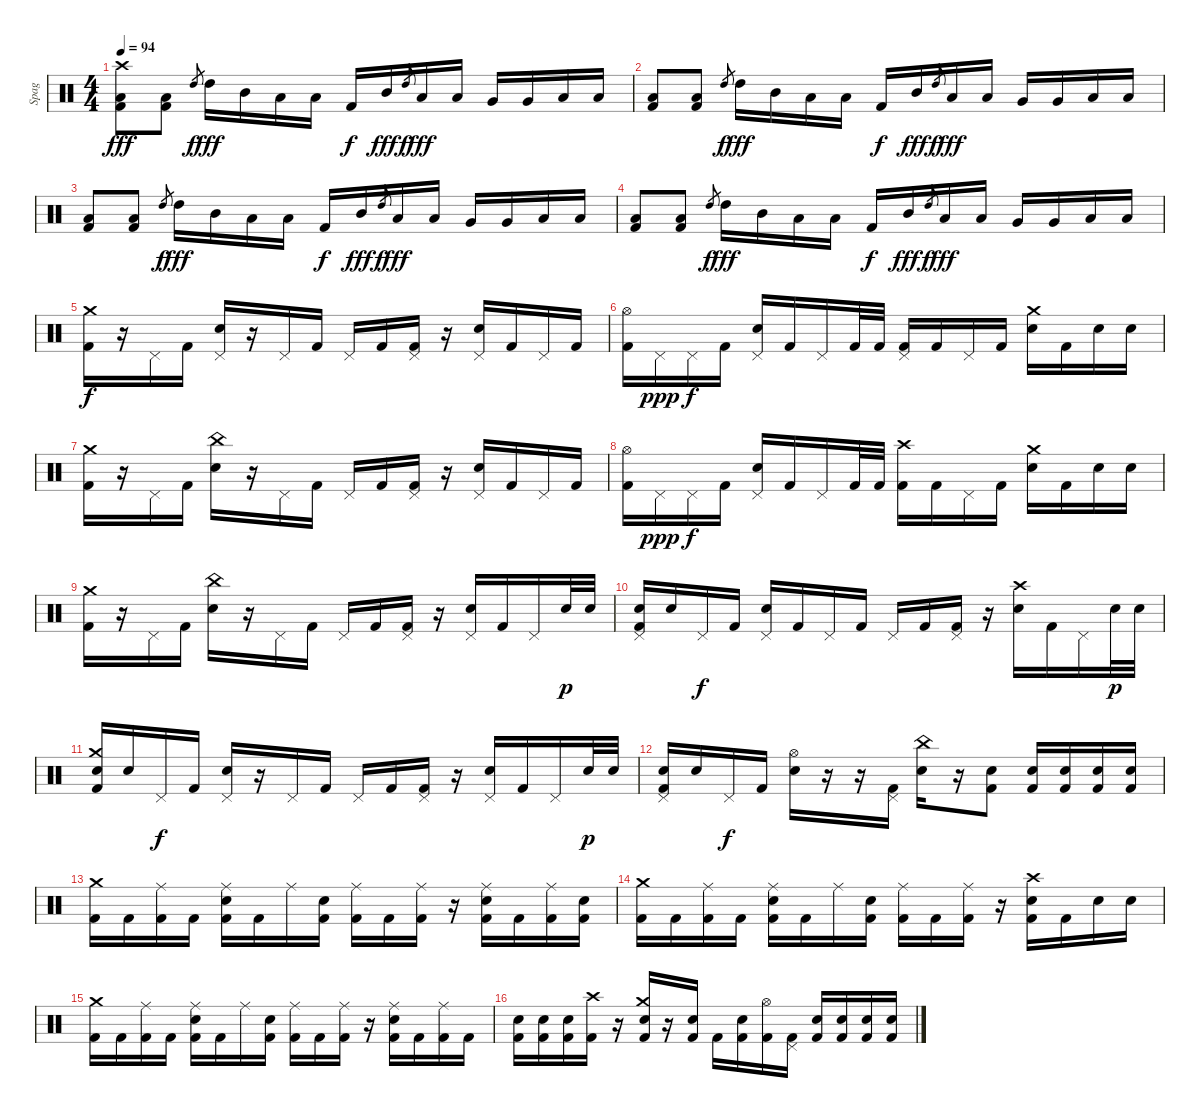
\track ("Spag" "Spag") {instrument percussion}
\staff {score}
\articulation defaults
\ts (4 4)
\tempo 94
\clef neutral
\ks c
("Crash high (hit)" "Low Floor Tom (hit)" "Kick (hit) 2").8{dy fff} ("Low Floor Tom (hit)" "Kick (hit) 2").8 "High Tom (hit)".8{gr dy f} "High Tom (hit)".16{dy fff} "Mid Tom (hit)".16 "Low Tom (hit)".16 "Low Tom (hit)".16 "Kick (hit) 2".16{dy f} "Mid Tom (hit)".16{dy fff} "High Tom (hit)".8{gr dy f} "Low Tom (hit)".16{dy fff} "Low Tom (hit)".16 "Very Low Tom (hit)".16 "Very Low Tom (hit)".16 "Low Floor Tom (hit)".16 "Low Floor Tom (hit)".16 |
("Low Floor Tom (hit)" "Kick (hit) 2").8 ("Low Floor Tom (hit)" "Kick (hit) 2").8 "High Tom (hit)".8{gr dy f} "High Tom (hit)".16{dy fff} "Mid Tom (hit)".16 "Low Tom (hit)".16 "Low Tom (hit)".16 "Kick (hit) 2".16{dy f} "Mid Tom (hit)".16{dy fff} "High Tom (hit)".8{gr dy f} "Low Tom (hit)".16{dy fff} "Low Tom (hit)".16 "Very Low Tom (hit)".16 "Very Low Tom (hit)".16 "Low Floor Tom (hit)".16 "Low Floor Tom (hit)".16 |
("Low Floor Tom (hit)" "Kick (hit) 2").8 ("Low Floor Tom (hit)" "Kick (hit) 2").8 "High Tom (hit)".8{gr dy f} "High Tom (hit)".16{dy fff} "Mid Tom (hit)".16 "Low Tom (hit)".16 "Low Tom (hit)".16 "Kick (hit) 2".16{dy f} "Mid Tom (hit)".16{dy fff} "High Tom (hit)".8{gr dy f} "Low Tom (hit)".16{dy fff} "Low Tom (hit)".16 "Very Low Tom (hit)".16 "Very Low Tom (hit)".16 "Low Floor Tom (hit)".16 "Low Floor Tom (hit)".16 |
("Low Floor Tom (hit)" "Kick (hit) 2").8 ("Low Floor Tom (hit)" "Kick (hit) 2").8 "High Tom (hit)".8{gr dy f} "High Tom (hit)".16{dy fff} "Mid Tom (hit)".16 "Low Tom (hit)".16 "Low Tom (hit)".16 "Kick (hit) 2".16{dy f} "Mid Tom (hit)".16{dy fff} "High Tom (hit)".8{gr dy f} "Low Tom (hit)".16{dy fff} "Low Tom (hit)".16 "Very Low Tom (hit)".16 "Very Low Tom (hit)".16 "Low Floor Tom (hit)".16 "Low Floor Tom (hit)".16 |
("Crash medium (hit)" "Kick (hit) 2").16{dy f} r.16 "Pedal Hi-Hat (hit)".16 "Kick (hit) 2".16 ("Pedal Hi-Hat (hit)" "Electric Snare (hit)").16 r.16 "Pedal Hi-Hat (hit)".16 "Kick (hit) 2".16 "Pedal Hi-Hat (hit)".16 "Kick (hit) 2".16 ("Pedal Hi-Hat (hit)" "Kick (hit) 2").16 r.16 ("Pedal Hi-Hat (hit)" "Electric Snare (hit)").16 "Kick (hit) 2".16 "Pedal Hi-Hat (hit)".16 "Kick (hit) 2".16 |
("Hi-Hat (open)" "Kick (hit) 2").16 "Pedal Hi-Hat (hit)".16{dy ppp} "Pedal Hi-Hat (hit)".16{dy f} "Kick (hit) 2".16 ("Pedal Hi-Hat (hit)" "Electric Snare (hit)").16 "Kick (hit) 2".16 "Pedal Hi-Hat (hit)".16 "Kick (hit) 2".32 "Kick (hit) 2".32 ("Pedal Hi-Hat (hit)" "Kick (hit) 2").16 "Kick (hit) 2".16 "Pedal Hi-Hat (hit)".16 "Kick (hit) 2".16 ("Crash medium (hit)" "Electric Snare (hit)").16 "Kick (hit) 2".16 "Electric Snare (hit)".16 "Electric Snare (hit)".16 |
("Crash medium (hit)" "Kick (hit) 2").16 r.16 "Pedal Hi-Hat (hit)".16 "Kick (hit) 2".16 ("China (hit)" "Electric Snare (hit)").16 r.16 "Pedal Hi-Hat (hit)".16 "Kick (hit) 2".16 "Pedal Hi-Hat (hit)".16 "Kick (hit) 2".16 ("Pedal Hi-Hat (hit)" "Kick (hit) 2").16 r.16 ("Pedal Hi-Hat (hit)" "Electric Snare (hit)").16 "Kick (hit) 2".16 "Pedal Hi-Hat (hit)".16 "Kick (hit) 2".16 |
("Hi-Hat (open)" "Kick (hit) 2").16 "Pedal Hi-Hat (hit)".16{dy ppp} "Pedal Hi-Hat (hit)".16{dy f} "Kick (hit) 2".16 ("Pedal Hi-Hat (hit)" "Electric Snare (hit)").16 "Kick (hit) 2".16 "Pedal Hi-Hat (hit)".16 "Kick (hit) 2".32 "Kick (hit) 2".32 ("Crash high (hit)" "Kick (hit) 2").16 "Kick (hit) 2".16 "Pedal Hi-Hat (hit)".16 "Kick (hit) 2".16 ("Crash medium (hit)" "Electric Snare (hit)").16 "Kick (hit) 2".16 "Electric Snare (hit)".16 "Electric Snare (hit)".16 |
("Crash medium (hit)" "Kick (hit) 2").16 r.16 "Pedal Hi-Hat (hit)".16 "Kick (hit) 2".16 ("China (hit)" "Electric Snare (hit)").16 r.16 "Pedal Hi-Hat (hit)".16 "Kick (hit) 2".16 "Pedal Hi-Hat (hit)".16 "Kick (hit) 2".16 ("Pedal Hi-Hat (hit)" "Kick (hit) 2").16 r.16 ("Pedal Hi-Hat (hit)" "Electric Snare (hit)").16 "Kick (hit) 2".16 "Pedal Hi-Hat (hit)".16 "Electric Snare (hit)".32{dy p} "Electric Snare (hit)".32 |
("Pedal Hi-Hat (hit)" "Electric Snare (hit)" "Kick (hit) 2").16 "Electric Snare (hit)".16 "Pedal Hi-Hat (hit)".16{dy f} "Kick (hit) 2".16 ("Pedal Hi-Hat (hit)" "Electric Snare (hit)").16 "Kick (hit) 2".16 "Pedal Hi-Hat (hit)".16 "Kick (hit) 2".16 "Pedal Hi-Hat (hit)".16 "Kick (hit) 2".16 ("Pedal Hi-Hat (hit)" "Kick (hit) 2").16 r.16 ("Crash high (hit)" "Electric Snare (hit)").16 "Kick (hit) 2".16 "Pedal Hi-Hat (hit)".16 "Electric Snare (hit)".32{dy p} "Electric Snare (hit)".32 |
("Crash medium (hit)" "Electric Snare (hit)" "Kick (hit) 2").16 "Electric Snare (hit)".16 "Pedal Hi-Hat (hit)".16{dy f} "Kick (hit) 2".16 ("Pedal Hi-Hat (hit)" "Electric Snare (hit)").16 r.16 "Pedal Hi-Hat (hit)".16 "Kick (hit) 2".16 "Pedal Hi-Hat (hit)".16 "Kick (hit) 2".16 ("Pedal Hi-Hat (hit)" "Kick (hit) 2").16 r.16 ("Pedal Hi-Hat (hit)" "Electric Snare (hit)").16 "Kick (hit) 2".16 "Pedal Hi-Hat (hit)".16 "Electric Snare (hit)".32{dy p} "Electric Snare (hit)".32 |
("Pedal Hi-Hat (hit)" "Electric Snare (hit)" "Kick (hit) 2").16 "Electric Snare (hit)".16 "Pedal Hi-Hat (hit)".16{dy f} "Kick (hit) 2".16 ("Hi-Hat (open)" "Electric Snare (hit)").16 r.16 r.16 ("Pedal Hi-Hat (hit)" "Kick (hit) 2").16 ("China (hit)" "Electric Snare (hit)").16 r.16 ("Electric Snare (hit)" "Kick (hit) 2").8 ("Electric Snare (hit)" "Kick (hit) 2").16 ("Electric Snare (hit)" "Kick (hit) 2").16 ("Electric Snare (hit)" "Kick (hit) 2").16 ("Electric Snare (hit)" "Kick (hit) 2").16 |
("Crash medium (hit)" "Kick (hit) 2").16 "Kick (hit) 2".16 ("Ride (middle)" "Kick (hit) 2").16 "Kick (hit) 2".16 ("Ride (middle)" "Electric Snare (hit)" "Kick (hit) 2").16 "Kick (hit) 2".16 "Ride (middle)".16 ("Electric Snare (hit)" "Kick (hit) 2").16 ("Ride (middle)" "Kick (hit) 2").16 "Kick (hit) 2".16 ("Ride (middle)" "Kick (hit) 2").16 r.16 ("Ride (middle)" "Electric Snare (hit)" "Kick (hit) 2").16 "Kick (hit) 2".16 ("Ride (middle)" "Kick (hit) 2").16 ("Electric Snare (hit)" "Kick (hit) 2").16 |
("Crash medium (hit)" "Kick (hit) 2").16 "Kick (hit) 2".16 ("Ride (middle)" "Kick (hit) 2").16 "Kick (hit) 2".16 ("Ride (middle)" "Electric Snare (hit)" "Kick (hit) 2").16 "Kick (hit) 2".16 "Ride (middle)".16 ("Electric Snare (hit)" "Kick (hit) 2").16 ("Ride (middle)" "Kick (hit) 2").16 "Kick (hit) 2".16 ("Ride (middle)" "Kick (hit) 2").16 r.16 ("Crash high (hit)" "Electric Snare (hit)" "Kick (hit) 2").16 "Kick (hit) 2".16 "Electric Snare (hit)".16 "Electric Snare (hit)".16 |
("Crash medium (hit)" "Kick (hit) 2").16 "Kick (hit) 2".16 ("Ride (middle)" "Kick (hit) 2").16 "Kick (hit) 2".16 ("Ride (middle)" "Electric Snare (hit)" "Kick (hit) 2").16 "Kick (hit) 2".16 "Ride (middle)".16 ("Electric Snare (hit)" "Kick (hit) 2").16 ("Ride (middle)" "Kick (hit) 2").16 "Kick (hit) 2".16 ("Ride (middle)" "Kick (hit) 2").16 r.16 ("Ride (middle)" "Electric Snare (hit)" "Kick (hit) 2").16 "Kick (hit) 2".16 ("Ride (middle)" "Kick (hit) 2").16 "Kick (hit) 2".16 |
("Electric Snare (hit)" "Kick (hit) 2").16 ("Electric Snare (hit)" "Kick (hit) 2").16 ("Electric Snare (hit)" "Kick (hit) 2").16 ("Crash high (hit)" "Kick (hit) 2").16 r.16 ("Crash medium (hit)" "Electric Snare (hit)" "Kick (hit) 2").16 r.16 ("Electric Snare (hit)" "Kick (hit) 2").16 "Kick (hit) 2".16 ("Electric Snare (hit)" "Kick (hit) 2").16 ("Hi-Hat (open)" "Kick (hit) 2").16 ("Pedal Hi-Hat (hit)" "Kick (hit) 2").16 ("Electric Snare (hit)" "Kick (hit) 2").16 ("Electric Snare (hit)" "Kick (hit) 2").16 ("Electric Snare (hit)" "Kick (hit) 2").16 ("Electric Snare (hit)" "Kick (hit) 2").16
